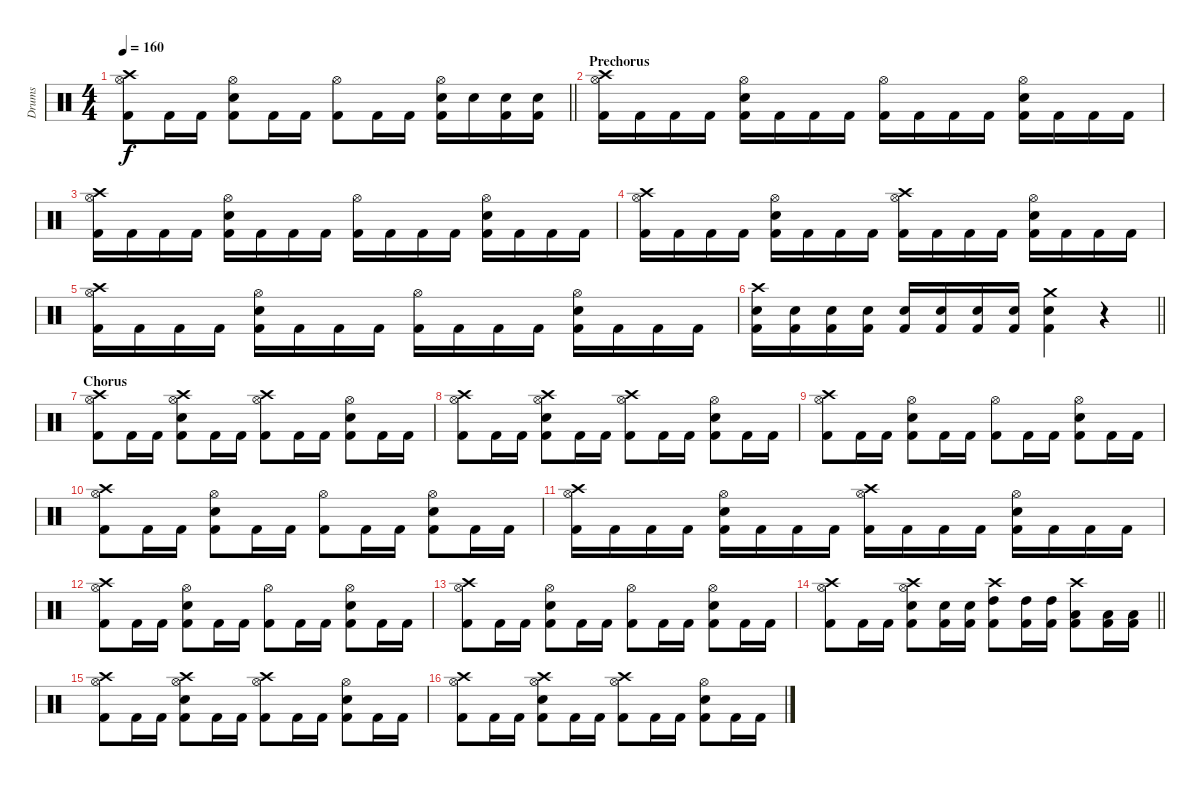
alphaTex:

\track ("Drums" "Drums") {instrument percussion}
\staff {score}
\articulation defaults
\ts (4 4)
\tempo 160
\clef neutral
\barLineRight lightlight
\ks c
("Crash high (hit)" "Hi-Hat (open)" "Kick (hit) 2").8{dy f} "Kick (hit) 2".16 "Kick (hit) 2".16 ("Hi-Hat (open)" "Snare (hit) 2" "Kick (hit) 2").8 "Kick (hit) 2".16 "Kick (hit) 2".16 ("Hi-Hat (open)" "Kick (hit) 2").8 "Kick (hit) 2".16 "Kick (hit) 2".16 ("Hi-Hat (open)" "Snare (hit) 2" "Kick (hit) 2").16 "Snare (hit) 2".16 ("Snare (hit) 2" "Kick (hit) 2").16 ("Snare (hit) 2" "Kick (hit) 2").16 |
\section ("" "Prechorus")
("Crash high (hit)" "Hi-Hat (open)" "Kick (hit) 2").16 "Kick (hit) 2".16 "Kick (hit) 2".16 "Kick (hit) 2".16 ("Hi-Hat (open)" "Snare (hit) 2" "Kick (hit) 2").16 "Kick (hit) 2".16 "Kick (hit) 2".16 "Kick (hit) 2".16 ("Hi-Hat (open)" "Kick (hit) 2").16 "Kick (hit) 2".16 "Kick (hit) 2".16 "Kick (hit) 2".16 ("Hi-Hat (open)" "Snare (hit) 2" "Kick (hit) 2").16 "Kick (hit) 2".16 "Kick (hit) 2".16 "Kick (hit) 2".16 |
("Crash high (hit)" "Hi-Hat (open)" "Kick (hit) 2").16 "Kick (hit) 2".16 "Kick (hit) 2".16 "Kick (hit) 2".16 ("Hi-Hat (open)" "Snare (hit) 2" "Kick (hit) 2").16 "Kick (hit) 2".16 "Kick (hit) 2".16 "Kick (hit) 2".16 ("Hi-Hat (open)" "Kick (hit) 2").16 "Kick (hit) 2".16 "Kick (hit) 2".16 "Kick (hit) 2".16 ("Hi-Hat (open)" "Snare (hit) 2" "Kick (hit) 2").16 "Kick (hit) 2".16 "Kick (hit) 2".16 "Kick (hit) 2".16 |
("Crash high (hit)" "Hi-Hat (open)" "Kick (hit) 2").16 "Kick (hit) 2".16 "Kick (hit) 2".16 "Kick (hit) 2".16 ("Hi-Hat (open)" "Snare (hit) 2" "Kick (hit) 2").16 "Kick (hit) 2".16 "Kick (hit) 2".16 "Kick (hit) 2".16 ("Crash high (hit)" "Hi-Hat (open)" "Kick (hit) 2").16 "Kick (hit) 2".16 "Kick (hit) 2".16 "Kick (hit) 2".16 ("Hi-Hat (open)" "Snare (hit) 2" "Kick (hit) 2").16 "Kick (hit) 2".16 "Kick (hit) 2".16 "Kick (hit) 2".16 |
("Crash high (hit)" "Hi-Hat (open)" "Kick (hit) 2").16 "Kick (hit) 2".16 "Kick (hit) 2".16 "Kick (hit) 2".16 ("Hi-Hat (open)" "Snare (hit) 2" "Kick (hit) 2").16 "Kick (hit) 2".16 "Kick (hit) 2".16 "Kick (hit) 2".16 ("Hi-Hat (open)" "Kick (hit) 2").16 "Kick (hit) 2".16 "Kick (hit) 2".16 "Kick (hit) 2".16 ("Hi-Hat (open)" "Snare (hit) 2" "Kick (hit) 2").16 "Kick (hit) 2".16 "Kick (hit) 2".16 "Kick (hit) 2".16 |
\barLineRight lightlight
("Crash high (hit)" "Snare (hit) 2" "Kick (hit) 2").16 ("Snare (hit) 2" "Kick (hit) 2").16 ("Snare (hit) 2" "Kick (hit) 2").16 ("Snare (hit) 2" "Kick (hit) 2").16 ("Snare (hit) 2" "Kick (hit) 2").16 ("Snare (hit) 2" "Kick (hit) 2").16 ("Snare (hit) 2" "Kick (hit) 2").16 ("Snare (hit) 2" "Kick (hit) 2").16 ("Crash medium (hit)" "Snare (hit) 2" "Kick (hit) 2").4 r.4 |
\section ("" "Chorus")
("Crash high (hit)" "Hi-Hat (open)" "Kick (hit) 2").8 "Kick (hit) 2".16 "Kick (hit) 2".16 ("Crash high (hit)" "Hi-Hat (open)" "Snare (hit) 2" "Kick (hit) 2").8 "Kick (hit) 2".16 "Kick (hit) 2".16 ("Crash high (hit)" "Hi-Hat (open)" "Kick (hit) 2").8 "Kick (hit) 2".16 "Kick (hit) 2".16 ("Hi-Hat (open)" "Snare (hit) 2" "Kick (hit) 2").8 "Kick (hit) 2".16 "Kick (hit) 2".16 |
("Crash high (hit)" "Hi-Hat (open)" "Kick (hit) 2").8 "Kick (hit) 2".16 "Kick (hit) 2".16 ("Crash high (hit)" "Hi-Hat (open)" "Snare (hit) 2" "Kick (hit) 2").8 "Kick (hit) 2".16 "Kick (hit) 2".16 ("Crash high (hit)" "Hi-Hat (open)" "Kick (hit) 2").8 "Kick (hit) 2".16 "Kick (hit) 2".16 ("Hi-Hat (open)" "Snare (hit) 2" "Kick (hit) 2").8 "Kick (hit) 2".16 "Kick (hit) 2".16 |
("Crash high (hit)" "Hi-Hat (open)" "Kick (hit) 2").8 "Kick (hit) 2".16 "Kick (hit) 2".16 ("Hi-Hat (open)" "Snare (hit) 2" "Kick (hit) 2").8 "Kick (hit) 2".16 "Kick (hit) 2".16 ("Hi-Hat (open)" "Kick (hit) 2").8 "Kick (hit) 2".16 "Kick (hit) 2".16 ("Hi-Hat (open)" "Snare (hit) 2" "Kick (hit) 2").8 "Kick (hit) 2".16 "Kick (hit) 2".16 |
("Crash high (hit)" "Hi-Hat (open)" "Kick (hit) 2").8 "Kick (hit) 2".16 "Kick (hit) 2".16 ("Hi-Hat (open)" "Snare (hit) 2" "Kick (hit) 2").8 "Kick (hit) 2".16 "Kick (hit) 2".16 ("Hi-Hat (open)" "Kick (hit) 2").8 "Kick (hit) 2".16 "Kick (hit) 2".16 ("Hi-Hat (open)" "Snare (hit) 2" "Kick (hit) 2").8 "Kick (hit) 2".16 "Kick (hit) 2".16 |
("Crash high (hit)" "Hi-Hat (open)" "Kick (hit) 2").16 "Kick (hit) 2".16 "Kick (hit) 2".16 "Kick (hit) 2".16 ("Hi-Hat (open)" "Snare (hit) 2" "Kick (hit) 2").16 "Kick (hit) 2".16 "Kick (hit) 2".16 "Kick (hit) 2".16 ("Crash high (hit)" "Hi-Hat (open)" "Kick (hit) 2").16 "Kick (hit) 2".16 "Kick (hit) 2".16 "Kick (hit) 2".16 ("Hi-Hat (open)" "Snare (hit) 2" "Kick (hit) 2").16 "Kick (hit) 2".16 "Kick (hit) 2".16 "Kick (hit) 2".16 |
("Crash high (hit)" "Hi-Hat (open)" "Kick (hit) 2").8 "Kick (hit) 2".16 "Kick (hit) 2".16 ("Hi-Hat (open)" "Snare (hit) 2" "Kick (hit) 2").8 "Kick (hit) 2".16 "Kick (hit) 2".16 ("Hi-Hat (open)" "Kick (hit) 2").8 "Kick (hit) 2".16 "Kick (hit) 2".16 ("Hi-Hat (open)" "Snare (hit) 2" "Kick (hit) 2").8 "Kick (hit) 2".16 "Kick (hit) 2".16 |
("Crash high (hit)" "Hi-Hat (open)" "Kick (hit) 2").8 "Kick (hit) 2".16 "Kick (hit) 2".16 ("Hi-Hat (open)" "Snare (hit) 2" "Kick (hit) 2").8 "Kick (hit) 2".16 "Kick (hit) 2".16 ("Hi-Hat (open)" "Kick (hit) 2").8 "Kick (hit) 2".16 "Kick (hit) 2".16 ("Hi-Hat (open)" "Snare (hit) 2" "Kick (hit) 2").8 "Kick (hit) 2".16 "Kick (hit) 2".16 |
\barLineRight lightlight
("Crash high (hit)" "Hi-Hat (open)" "Kick (hit) 2").8 "Kick (hit) 2".16 "Kick (hit) 2".16 ("Crash high (hit)" "Hi-Hat (open)" "Snare (hit) 2" "Kick (hit) 2").8 ("Snare (hit) 2" "Kick (hit) 2").16 ("Snare (hit) 2" "Kick (hit) 2").16 ("Crash high (hit)" "High Tom (hit)" "Kick (hit) 2").8 ("High Tom (hit)" "Kick (hit) 2").16 ("High Tom (hit)" "Kick (hit) 2").16 ("Crash high (hit)" "Low Tom (hit)" "Kick (hit) 2").8 ("Low Tom (hit)" "Kick (hit) 2").16 ("Low Tom (hit)" "Kick (hit) 2").16 |
("Crash high (hit)" "Hi-Hat (open)" "Kick (hit) 2").8 "Kick (hit) 2".16 "Kick (hit) 2".16 ("Crash high (hit)" "Hi-Hat (open)" "Snare (hit) 2" "Kick (hit) 2").8 "Kick (hit) 2".16 "Kick (hit) 2".16 ("Crash high (hit)" "Hi-Hat (open)" "Kick (hit) 2").8 "Kick (hit) 2".16 "Kick (hit) 2".16 ("Hi-Hat (open)" "Snare (hit) 2" "Kick (hit) 2").8 "Kick (hit) 2".16 "Kick (hit) 2".16 |
("Crash high (hit)" "Hi-Hat (open)" "Kick (hit) 2").8 "Kick (hit) 2".16 "Kick (hit) 2".16 ("Crash high (hit)" "Hi-Hat (open)" "Snare (hit) 2" "Kick (hit) 2").8 "Kick (hit) 2".16 "Kick (hit) 2".16 ("Crash high (hit)" "Hi-Hat (open)" "Kick (hit) 2").8 "Kick (hit) 2".16 "Kick (hit) 2".16 ("Hi-Hat (open)" "Snare (hit) 2" "Kick (hit) 2").8 "Kick (hit) 2".16 "Kick (hit) 2".16
